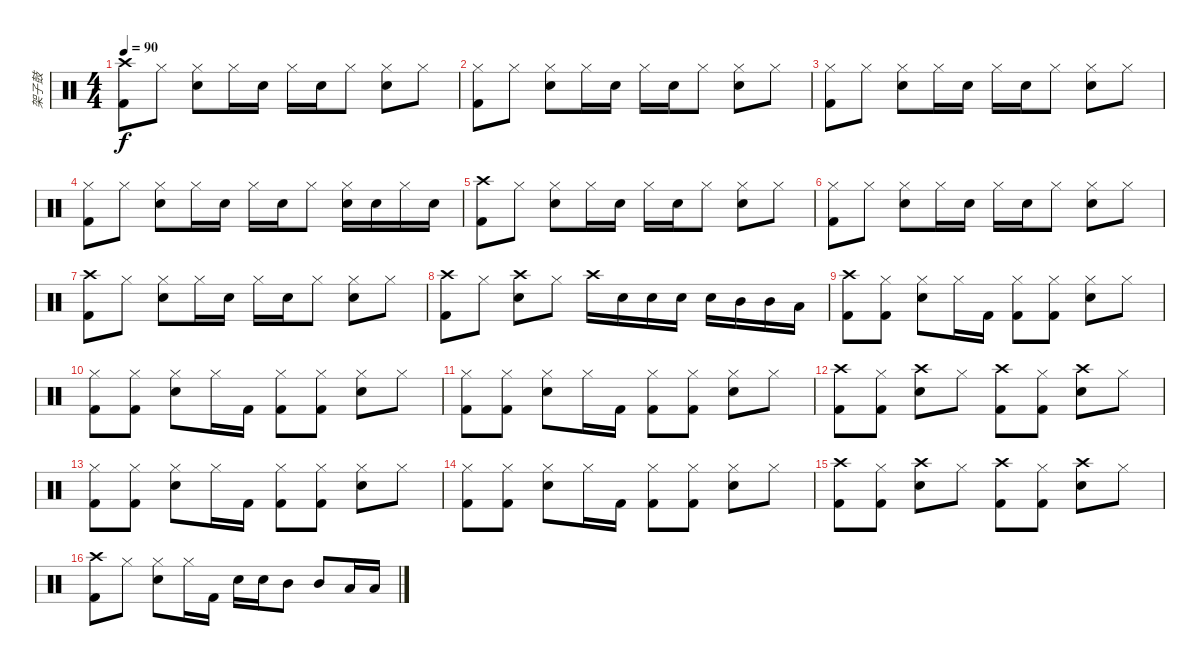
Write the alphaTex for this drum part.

\track ("架子鼓" "架子鼓") {instrument percussion}
\staff {score}
\articulation defaults
\ts (4 4)
\tempo 90
\clef neutral
\ks c
("Crash high (hit)" "Kick (hit) 2").8{dy f} "Hi-Hat (closed)".8 ("Hi-Hat (closed)" "Snare (hit) 2").8 "Hi-Hat (closed)".16 "Snare (hit) 2".16 "Hi-Hat (closed)".16 "Snare (hit) 2".16 "Hi-Hat (closed)".8 ("Hi-Hat (closed)" "Snare (hit) 2").8 "Hi-Hat (closed)".8 |
("Hi-Hat (closed)" "Kick (hit) 2").8 "Hi-Hat (closed)".8 ("Hi-Hat (closed)" "Snare (hit) 2").8 "Hi-Hat (closed)".16 "Snare (hit) 2".16 "Hi-Hat (closed)".16 "Snare (hit) 2".16 "Hi-Hat (closed)".8 ("Hi-Hat (closed)" "Snare (hit) 2").8 "Hi-Hat (closed)".8 |
("Hi-Hat (closed)" "Kick (hit) 2").8 "Hi-Hat (closed)".8 ("Hi-Hat (closed)" "Snare (hit) 2").8 "Hi-Hat (closed)".16 "Snare (hit) 2".16 "Hi-Hat (closed)".16 "Snare (hit) 2".16 "Hi-Hat (closed)".8 ("Hi-Hat (closed)" "Snare (hit) 2").8 "Hi-Hat (closed)".8 |
("Hi-Hat (closed)" "Kick (hit) 2").8 "Hi-Hat (closed)".8 ("Hi-Hat (closed)" "Snare (hit) 2").8 "Hi-Hat (closed)".16 "Snare (hit) 2".16 "Hi-Hat (closed)".16 "Snare (hit) 2".16 "Hi-Hat (closed)".8 ("Hi-Hat (closed)" "Snare (hit) 2").16 "Snare (hit) 2".16 "Hi-Hat (closed)".16 "Snare (hit) 2".16 |
("Crash high (hit)" "Kick (hit) 2").8 "Hi-Hat (closed)".8 ("Hi-Hat (closed)" "Snare (hit) 2").8 "Hi-Hat (closed)".16 "Snare (hit) 2".16 "Hi-Hat (closed)".16 "Snare (hit) 2".16 "Hi-Hat (closed)".8 ("Hi-Hat (closed)" "Snare (hit) 2").8 "Hi-Hat (closed)".8 |
("Hi-Hat (closed)" "Kick (hit) 2").8 "Hi-Hat (closed)".8 ("Hi-Hat (closed)" "Snare (hit) 2").8 "Hi-Hat (closed)".16 "Snare (hit) 2".16 "Hi-Hat (closed)".16 "Snare (hit) 2".16 "Hi-Hat (closed)".8 ("Hi-Hat (closed)" "Snare (hit) 2").8 "Hi-Hat (closed)".8 |
("Crash high (hit)" "Kick (hit) 2").8 "Hi-Hat (closed)".8 ("Hi-Hat (closed)" "Snare (hit) 2").8 "Hi-Hat (closed)".16 "Snare (hit) 2".16 "Hi-Hat (closed)".16 "Snare (hit) 2".16 "Hi-Hat (closed)".8 ("Hi-Hat (closed)" "Snare (hit) 2").8 "Hi-Hat (closed)".8 |
("Crash high (hit)" "Kick (hit) 2").8 "Hi-Hat (closed)".8 ("Crash high (hit)" "Snare (hit) 2").8 "Hi-Hat (closed)".8 "Crash high (hit)".16 "Snare (hit) 2".16 "Snare (hit) 2".16 "Snare (hit) 2".16 "Snare (hit) 2".16 "Mid Tom (hit)".16 "Mid Tom (hit)".16 "Low Tom (hit)".16 |
("Crash high (hit)" "Kick (hit) 2").8 ("Hi-Hat (closed)" "Kick (hit) 2").8 ("Hi-Hat (closed)" "Snare (hit) 2").8 "Hi-Hat (closed)".16 "Kick (hit) 2".16 ("Hi-Hat (closed)" "Kick (hit) 2").8 ("Hi-Hat (closed)" "Kick (hit) 2").8 ("Hi-Hat (closed)" "Snare (hit) 2").8 "Hi-Hat (closed)".8 |
("Hi-Hat (closed)" "Kick (hit) 2").8 ("Hi-Hat (closed)" "Kick (hit) 2").8 ("Hi-Hat (closed)" "Snare (hit) 2").8 "Hi-Hat (closed)".16 "Kick (hit) 2".16 ("Hi-Hat (closed)" "Kick (hit) 2").8 ("Hi-Hat (closed)" "Kick (hit) 2").8 ("Hi-Hat (closed)" "Snare (hit) 2").8 "Hi-Hat (closed)".8 |
("Hi-Hat (closed)" "Kick (hit) 2").8 ("Hi-Hat (closed)" "Kick (hit) 2").8 ("Hi-Hat (closed)" "Snare (hit) 2").8 "Hi-Hat (closed)".16 "Kick (hit) 2".16 ("Hi-Hat (closed)" "Kick (hit) 2").8 ("Hi-Hat (closed)" "Kick (hit) 2").8 ("Hi-Hat (closed)" "Snare (hit) 2").8 "Hi-Hat (closed)".8 |
("Crash high (hit)" "Kick (hit) 2").8 ("Hi-Hat (closed)" "Kick (hit) 2").8 ("Crash high (hit)" "Snare (hit) 2").8 "Hi-Hat (closed)".8 ("Crash high (hit)" "Kick (hit) 2").8 ("Hi-Hat (closed)" "Kick (hit) 2").8 ("Crash high (hit)" "Snare (hit) 2").8 "Hi-Hat (closed)".8 |
("Hi-Hat (closed)" "Kick (hit) 2").8 ("Hi-Hat (closed)" "Kick (hit) 2").8 ("Hi-Hat (closed)" "Snare (hit) 2").8 "Hi-Hat (closed)".16 "Kick (hit) 2".16 ("Hi-Hat (closed)" "Kick (hit) 2").8 ("Hi-Hat (closed)" "Kick (hit) 2").8 ("Hi-Hat (closed)" "Snare (hit) 2").8 "Hi-Hat (closed)".8 |
("Hi-Hat (closed)" "Kick (hit) 2").8 ("Hi-Hat (closed)" "Kick (hit) 2").8 ("Hi-Hat (closed)" "Snare (hit) 2").8 "Hi-Hat (closed)".16 "Kick (hit) 2".16 ("Hi-Hat (closed)" "Kick (hit) 2").8 ("Hi-Hat (closed)" "Kick (hit) 2").8 ("Hi-Hat (closed)" "Snare (hit) 2").8 "Hi-Hat (closed)".8 |
("Crash high (hit)" "Kick (hit) 2").8 ("Hi-Hat (closed)" "Kick (hit) 2").8 ("Crash high (hit)" "Snare (hit) 2").8 "Hi-Hat (closed)".8 ("Crash high (hit)" "Kick (hit) 2").8 ("Hi-Hat (closed)" "Kick (hit) 2").8 ("Crash high (hit)" "Snare (hit) 2").8 "Hi-Hat (closed)".8 |
("Crash high (hit)" "Kick (hit) 2").8 "Hi-Hat (closed)".8 ("Hi-Hat (closed)" "Snare (hit) 2").8 "Hi-Hat (closed)".16 "Kick (hit) 2".16 "Snare (hit) 2".16 "Snare (hit) 2".16 "Mid Tom (hit)".8 "Mid Tom (hit)".8 "Low Tom (hit)".16 "Low Tom (hit)".16
